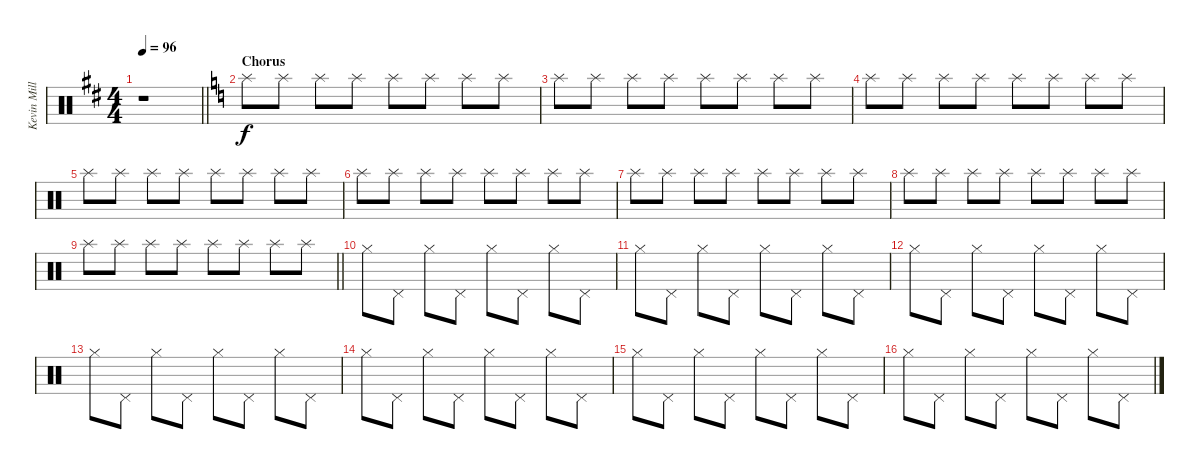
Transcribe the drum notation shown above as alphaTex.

\track ("Kevin Miller (Drums)" "Kevin Mill") {instrument percussion}
\staff {score}
\articulation defaults
\ts (4 4)
\tempo 96
\clef neutral
\barLineRight lightlight
\ks d
r.1{dy f} |
\section ("" "Chorus")
\ks c "Splash (hit)".8 "Splash (hit)".8 "Splash (hit)".8 "Splash (hit)".8 "Splash (hit)".8 "Splash (hit)".8 "Splash (hit)".8 "Splash (hit)".8
|
"Splash (hit)".8 "Splash (hit)".8 "Splash (hit)".8 "Splash (hit)".8 "Splash (hit)".8 "Splash (hit)".8 "Splash (hit)".8 "Splash (hit)".8 |
"Splash (hit)".8 "Splash (hit)".8 "Splash (hit)".8 "Splash (hit)".8 "Splash (hit)".8 "Splash (hit)".8 "Splash (hit)".8 "Splash (hit)".8 |
"Splash (hit)".8 "Splash (hit)".8 "Splash (hit)".8 "Splash (hit)".8 "Splash (hit)".8 "Splash (hit)".8 "Splash (hit)".8 "Splash (hit)".8 |
"Splash (hit)".8 "Splash (hit)".8 "Splash (hit)".8 "Splash (hit)".8 "Splash (hit)".8 "Splash (hit)".8 "Splash (hit)".8 "Splash (hit)".8 |
"Splash (hit)".8 "Splash (hit)".8 "Splash (hit)".8 "Splash (hit)".8 "Splash (hit)".8 "Splash (hit)".8 "Splash (hit)".8 "Splash (hit)".8 |
"Splash (hit)".8 "Splash (hit)".8 "Splash (hit)".8 "Splash (hit)".8 "Splash (hit)".8 "Splash (hit)".8 "Splash (hit)".8 "Splash (hit)".8 |
\barLineRight lightlight "Splash (hit)".8 "Splash (hit)".8 "Splash (hit)".8 "Splash (hit)".8 "Splash (hit)".8 "Splash (hit)".8 "Splash (hit)".8 "Splash (hit)".8
|
"Hi-Hat (closed)".8 "Pedal Hi-Hat (hit)".8 "Hi-Hat (closed)".8 "Pedal Hi-Hat (hit)".8 "Hi-Hat (closed)".8 "Pedal Hi-Hat (hit)".8 "Hi-Hat (closed)".8 "Pedal Hi-Hat (hit)".8 |
"Hi-Hat (closed)".8 "Pedal Hi-Hat (hit)".8 "Hi-Hat (closed)".8 "Pedal Hi-Hat (hit)".8 "Hi-Hat (closed)".8 "Pedal Hi-Hat (hit)".8 "Hi-Hat (closed)".8 "Pedal Hi-Hat (hit)".8 |
"Hi-Hat (closed)".8 "Pedal Hi-Hat (hit)".8 "Hi-Hat (closed)".8 "Pedal Hi-Hat (hit)".8 "Hi-Hat (closed)".8 "Pedal Hi-Hat (hit)".8 "Hi-Hat (closed)".8 "Pedal Hi-Hat (hit)".8 |
"Hi-Hat (closed)".8 "Pedal Hi-Hat (hit)".8 "Hi-Hat (closed)".8 "Pedal Hi-Hat (hit)".8 "Hi-Hat (closed)".8 "Pedal Hi-Hat (hit)".8 "Hi-Hat (closed)".8 "Pedal Hi-Hat (hit)".8 |
"Hi-Hat (closed)".8 "Pedal Hi-Hat (hit)".8 "Hi-Hat (closed)".8 "Pedal Hi-Hat (hit)".8 "Hi-Hat (closed)".8 "Pedal Hi-Hat (hit)".8 "Hi-Hat (closed)".8 "Pedal Hi-Hat (hit)".8 |
"Hi-Hat (closed)".8 "Pedal Hi-Hat (hit)".8 "Hi-Hat (closed)".8 "Pedal Hi-Hat (hit)".8 "Hi-Hat (closed)".8 "Pedal Hi-Hat (hit)".8 "Hi-Hat (closed)".8 "Pedal Hi-Hat (hit)".8 |
"Hi-Hat (closed)".8 "Pedal Hi-Hat (hit)".8 "Hi-Hat (closed)".8 "Pedal Hi-Hat (hit)".8 "Hi-Hat (closed)".8 "Pedal Hi-Hat (hit)".8 "Hi-Hat (closed)".8 "Pedal Hi-Hat (hit)".8
